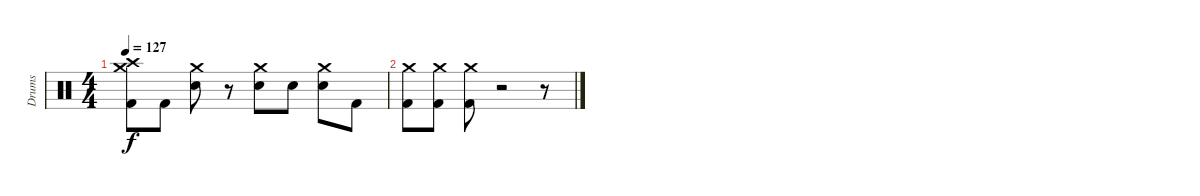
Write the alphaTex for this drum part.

\track ("Drums" "Drums") {instrument percussion}
\staff {score}
\articulation defaults
\ts (4 4)
\tempo 127
\clef neutral
\ks c
("Crash high (hit)" "Crash medium (hit)" "Kick (hit) 2").8{dy f} "Kick (hit) 2".8 ("Crash medium (hit)" "Snare (hit) 2").8 r.8 ("Crash medium (hit)" "Snare (hit) 2").8 "Snare (hit) 2".8 ("Crash medium (hit)" "Snare (hit) 2").8 "Kick (hit) 2".8 |
("Crash medium (hit)" "Kick (hit) 2").8 ("Crash medium (hit)" "Kick (hit) 2").8 ("Crash medium (hit)" "Kick (hit) 2").8 r.2 r.8
